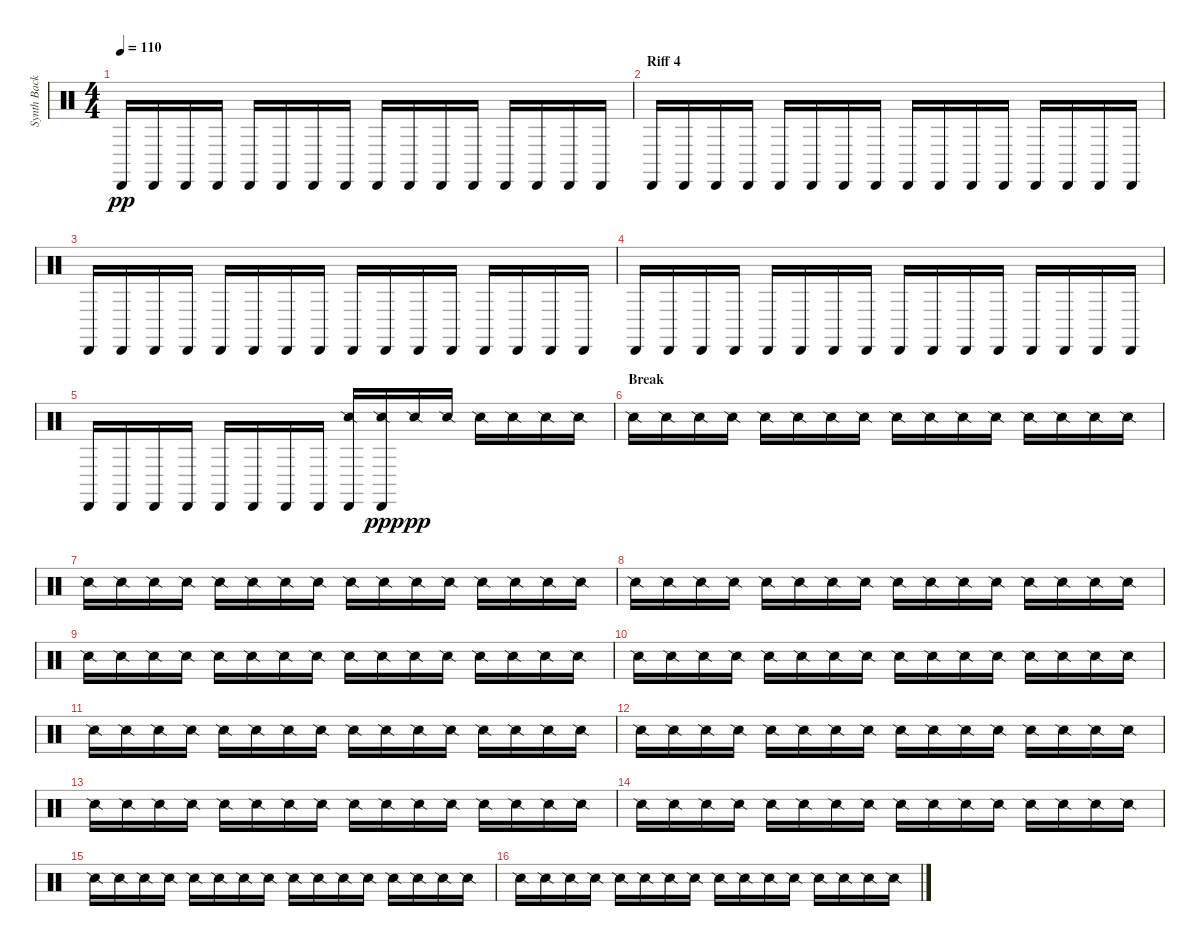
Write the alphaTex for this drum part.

\track ("Synth Background Rhythm" "Synth Back") {instrument percussion}
\staff {score}
\articulation defaults
\ts (4 4)
\tempo 110
\clef neutral
\ks c "Cabasa (hit)".16{dy pp} "Cabasa (hit)".16 "Cabasa (hit)".16 "Cabasa (hit)".16 "Cabasa (hit)".16 "Cabasa (hit)".16 "Cabasa (hit)".16 "Cabasa (hit)".16 "Cabasa (hit)".16 "Cabasa (hit)".16 "Cabasa (hit)".16 "Cabasa (hit)".16 "Cabasa (hit)".16 "Cabasa (hit)".16 "Cabasa (hit)".16 "Cabasa (hit)".16
|
\section ("" "Riff 4")
"Cabasa (hit)".16 "Cabasa (hit)".16 "Cabasa (hit)".16 "Cabasa (hit)".16 "Cabasa (hit)".16 "Cabasa (hit)".16 "Cabasa (hit)".16 "Cabasa (hit)".16 "Cabasa (hit)".16 "Cabasa (hit)".16 "Cabasa (hit)".16 "Cabasa (hit)".16 "Cabasa (hit)".16 "Cabasa (hit)".16 "Cabasa (hit)".16 "Cabasa (hit)".16 |
"Cabasa (hit)".16 "Cabasa (hit)".16 "Cabasa (hit)".16 "Cabasa (hit)".16 "Cabasa (hit)".16 "Cabasa (hit)".16 "Cabasa (hit)".16 "Cabasa (hit)".16 "Cabasa (hit)".16 "Cabasa (hit)".16 "Cabasa (hit)".16 "Cabasa (hit)".16 "Cabasa (hit)".16 "Cabasa (hit)".16 "Cabasa (hit)".16 "Cabasa (hit)".16 |
"Cabasa (hit)".16 "Cabasa (hit)".16 "Cabasa (hit)".16 "Cabasa (hit)".16 "Cabasa (hit)".16 "Cabasa (hit)".16 "Cabasa (hit)".16 "Cabasa (hit)".16 "Cabasa (hit)".16 "Cabasa (hit)".16 "Cabasa (hit)".16 "Cabasa (hit)".16 "Cabasa (hit)".16 "Cabasa (hit)".16 "Cabasa (hit)".16 "Cabasa (hit)".16 |
"Cabasa (hit)".16 "Cabasa (hit)".16 "Cabasa (hit)".16 "Cabasa (hit)".16 "Cabasa (hit)".16 "Cabasa (hit)".16 "Cabasa (hit)".16 "Cabasa (hit)".16 ("Snare (side stick) 2" "Cabasa (hit)").16 ("Snare (side stick) 2" "Cabasa (hit)").16{dy ppp} "Snare (side stick) 2".16{dy pp} "Snare (side stick) 2".16 "Snare (side stick) 2".16 "Snare (side stick) 2".16 "Snare (side stick) 2".16 "Snare (side stick) 2".16 |
\section ("" "Break")
"Snare (side stick) 2".16 "Snare (side stick) 2".16 "Snare (side stick) 2".16 "Snare (side stick) 2".16 "Snare (side stick) 2".16 "Snare (side stick) 2".16 "Snare (side stick) 2".16 "Snare (side stick) 2".16 "Snare (side stick) 2".16 "Snare (side stick) 2".16 "Snare (side stick) 2".16 "Snare (side stick) 2".16 "Snare (side stick) 2".16 "Snare (side stick) 2".16 "Snare (side stick) 2".16 "Snare (side stick) 2".16 |
"Snare (side stick) 2".16 "Snare (side stick) 2".16 "Snare (side stick) 2".16 "Snare (side stick) 2".16 "Snare (side stick) 2".16 "Snare (side stick) 2".16 "Snare (side stick) 2".16 "Snare (side stick) 2".16 "Snare (side stick) 2".16 "Snare (side stick) 2".16 "Snare (side stick) 2".16 "Snare (side stick) 2".16 "Snare (side stick) 2".16 "Snare (side stick) 2".16 "Snare (side stick) 2".16 "Snare (side stick) 2".16 |
"Snare (side stick) 2".16 "Snare (side stick) 2".16 "Snare (side stick) 2".16 "Snare (side stick) 2".16 "Snare (side stick) 2".16 "Snare (side stick) 2".16 "Snare (side stick) 2".16 "Snare (side stick) 2".16 "Snare (side stick) 2".16 "Snare (side stick) 2".16 "Snare (side stick) 2".16 "Snare (side stick) 2".16 "Snare (side stick) 2".16 "Snare (side stick) 2".16 "Snare (side stick) 2".16 "Snare (side stick) 2".16 |
"Snare (side stick) 2".16 "Snare (side stick) 2".16 "Snare (side stick) 2".16 "Snare (side stick) 2".16 "Snare (side stick) 2".16 "Snare (side stick) 2".16 "Snare (side stick) 2".16 "Snare (side stick) 2".16 "Snare (side stick) 2".16 "Snare (side stick) 2".16 "Snare (side stick) 2".16 "Snare (side stick) 2".16 "Snare (side stick) 2".16 "Snare (side stick) 2".16 "Snare (side stick) 2".16 "Snare (side stick) 2".16 |
"Snare (side stick) 2".16 "Snare (side stick) 2".16 "Snare (side stick) 2".16 "Snare (side stick) 2".16 "Snare (side stick) 2".16 "Snare (side stick) 2".16 "Snare (side stick) 2".16 "Snare (side stick) 2".16 "Snare (side stick) 2".16 "Snare (side stick) 2".16 "Snare (side stick) 2".16 "Snare (side stick) 2".16 "Snare (side stick) 2".16 "Snare (side stick) 2".16 "Snare (side stick) 2".16 "Snare (side stick) 2".16 |
"Snare (side stick) 2".16 "Snare (side stick) 2".16 "Snare (side stick) 2".16 "Snare (side stick) 2".16 "Snare (side stick) 2".16 "Snare (side stick) 2".16 "Snare (side stick) 2".16 "Snare (side stick) 2".16 "Snare (side stick) 2".16 "Snare (side stick) 2".16 "Snare (side stick) 2".16 "Snare (side stick) 2".16 "Snare (side stick) 2".16 "Snare (side stick) 2".16 "Snare (side stick) 2".16 "Snare (side stick) 2".16 |
"Snare (side stick) 2".16 "Snare (side stick) 2".16 "Snare (side stick) 2".16 "Snare (side stick) 2".16 "Snare (side stick) 2".16 "Snare (side stick) 2".16 "Snare (side stick) 2".16 "Snare (side stick) 2".16 "Snare (side stick) 2".16 "Snare (side stick) 2".16 "Snare (side stick) 2".16 "Snare (side stick) 2".16 "Snare (side stick) 2".16 "Snare (side stick) 2".16 "Snare (side stick) 2".16 "Snare (side stick) 2".16 |
"Snare (side stick) 2".16 "Snare (side stick) 2".16 "Snare (side stick) 2".16 "Snare (side stick) 2".16 "Snare (side stick) 2".16 "Snare (side stick) 2".16 "Snare (side stick) 2".16 "Snare (side stick) 2".16 "Snare (side stick) 2".16 "Snare (side stick) 2".16 "Snare (side stick) 2".16 "Snare (side stick) 2".16 "Snare (side stick) 2".16 "Snare (side stick) 2".16 "Snare (side stick) 2".16 "Snare (side stick) 2".16 |
"Snare (side stick) 2".16 "Snare (side stick) 2".16 "Snare (side stick) 2".16 "Snare (side stick) 2".16 "Snare (side stick) 2".16 "Snare (side stick) 2".16 "Snare (side stick) 2".16 "Snare (side stick) 2".16 "Snare (side stick) 2".16 "Snare (side stick) 2".16 "Snare (side stick) 2".16 "Snare (side stick) 2".16 "Snare (side stick) 2".16 "Snare (side stick) 2".16 "Snare (side stick) 2".16 "Snare (side stick) 2".16 |
"Snare (side stick) 2".16 "Snare (side stick) 2".16 "Snare (side stick) 2".16 "Snare (side stick) 2".16 "Snare (side stick) 2".16 "Snare (side stick) 2".16 "Snare (side stick) 2".16 "Snare (side stick) 2".16 "Snare (side stick) 2".16 "Snare (side stick) 2".16 "Snare (side stick) 2".16 "Snare (side stick) 2".16 "Snare (side stick) 2".16 "Snare (side stick) 2".16 "Snare (side stick) 2".16 "Snare (side stick) 2".16 |
"Snare (side stick) 2".16 "Snare (side stick) 2".16 "Snare (side stick) 2".16 "Snare (side stick) 2".16 "Snare (side stick) 2".16 "Snare (side stick) 2".16 "Snare (side stick) 2".16 "Snare (side stick) 2".16 "Snare (side stick) 2".16 "Snare (side stick) 2".16 "Snare (side stick) 2".16 "Snare (side stick) 2".16 "Snare (side stick) 2".16 "Snare (side stick) 2".16 "Snare (side stick) 2".16 "Snare (side stick) 2".16
